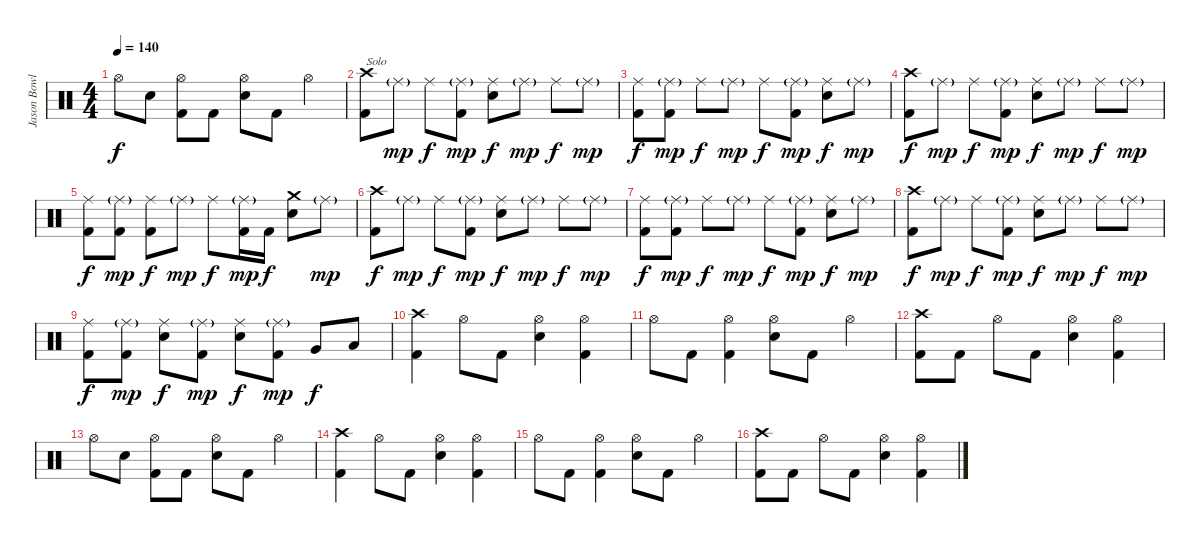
\track ("Jason Bowld" "Jason Bowl") {instrument percussion}
\staff {score}
\articulation defaults
\ts (4 4)
\tempo 140
\clef neutral
\ks c "Hi-Hat (open)".8{dy f} "Snare (hit) 2".8
("Hi-Hat (open)" "Kick (hit) 2").8 "Kick (hit) 2".8 ("Hi-Hat (open)" "Snare (hit) 2").8 "Kick (hit) 2".8 "Hi-Hat (open)".4 |
("Crash high (hit)" "Kick (hit) 2").8{txt "Solo"} "Ride (middle)"{g}.8{dy mp} "Ride (middle)".8{dy f} ("Ride (middle)"{g} "Kick (hit) 2").8{dy mp} ("Ride (middle)" "Snare (hit) 2").8{dy f} "Ride (middle)"{g}.8{dy mp} "Ride (middle)".8{dy f} "Ride (middle)"{g}.8{dy mp} |
("Ride (middle)" "Kick (hit) 2").8{dy f} ("Ride (middle)"{g} "Kick (hit) 2").8{dy mp} "Ride (middle)".8{dy f} "Ride (middle)"{g}.8{dy mp} "Ride (middle)".8{dy f} ("Ride (middle)"{g} "Kick (hit) 2").8{dy mp} ("Ride (middle)" "Snare (hit) 2").8{dy f} "Ride (middle)"{g}.8{dy mp} |
("Crash high (hit)" "Kick (hit) 2").8{dy f} "Ride (middle)"{g}.8{dy mp} "Ride (middle)".8{dy f} ("Ride (middle)"{g} "Kick (hit) 2").8{dy mp} ("Ride (middle)" "Snare (hit) 2").8{dy f} "Ride (middle)"{g}.8{dy mp} "Ride (middle)".8{dy f} "Ride (middle)"{g}.8{dy mp} |
("Ride (middle)" "Kick (hit) 2").8{dy f} ("Ride (middle)"{g} "Kick (hit) 2").8{dy mp} ("Ride (middle)" "Kick (hit) 2").8{dy f} "Ride (middle)"{g}.8{dy mp} "Ride (middle)".8{dy f} ("Ride (middle)"{g} "Kick (hit) 2").16{dy mp} "Kick (hit) 2".16{dy f} ("Crash medium (hit)" "Snare (hit) 2").8 "Ride (middle)"{g}.8{dy mp} |
("Crash high (hit)" "Kick (hit) 2").8{dy f} "Ride (middle)"{g}.8{dy mp} "Ride (middle)".8{dy f} ("Ride (middle)"{g} "Kick (hit) 2").8{dy mp} ("Ride (middle)" "Snare (hit) 2").8{dy f} "Ride (middle)"{g}.8{dy mp} "Ride (middle)".8{dy f} "Ride (middle)"{g}.8{dy mp} |
("Ride (middle)" "Kick (hit) 2").8{dy f} ("Ride (middle)"{g} "Kick (hit) 2").8{dy mp} "Ride (middle)".8{dy f} "Ride (middle)"{g}.8{dy mp} "Ride (middle)".8{dy f} ("Ride (middle)"{g} "Kick (hit) 2").8{dy mp} ("Ride (middle)" "Snare (hit) 2").8{dy f} "Ride (middle)"{g}.8{dy mp} |
("Crash high (hit)" "Kick (hit) 2").8{dy f} "Ride (middle)"{g}.8{dy mp} "Ride (middle)".8{dy f} ("Ride (middle)"{g} "Kick (hit) 2").8{dy mp} ("Ride (middle)" "Snare (hit) 2").8{dy f} "Ride (middle)"{g}.8{dy mp} "Ride (middle)".8{dy f} "Ride (middle)"{g}.8{dy mp} |
("Ride (middle)" "Kick (hit) 2").8{dy f} ("Ride (middle)"{g} "Kick (hit) 2").8{dy mp} ("Ride (middle)" "Snare (hit) 2").8{dy f} ("Ride (middle)"{g} "Kick (hit) 2").8{dy mp} ("Ride (middle)" "Snare (hit) 2").8{dy f} ("Ride (middle)"{g} "Kick (hit) 2").8{dy mp} "Very Low Tom (hit)".8{dy f} "Low Tom (hit)".8 |
("Crash high (hit)" "Kick (hit) 2").4 "Hi-Hat (open)".8 "Kick (hit) 2".8 ("Hi-Hat (open)" "Snare (hit) 2").4 ("Hi-Hat (open)" "Kick (hit) 2").4 |
"Hi-Hat (open)".8 "Kick (hit) 2".8 ("Hi-Hat (open)" "Kick (hit) 2").4 ("Hi-Hat (open)" "Snare (hit) 2").8 "Kick (hit) 2".8 "Hi-Hat (open)".4 |
("Crash high (hit)" "Kick (hit) 2").8 "Kick (hit) 2".8 "Hi-Hat (open)".8 "Kick (hit) 2".8 ("Hi-Hat (open)" "Snare (hit) 2").4 ("Hi-Hat (open)" "Kick (hit) 2").4 |
"Hi-Hat (open)".8 "Snare (hit) 2".8 ("Hi-Hat (open)" "Kick (hit) 2").8 "Kick (hit) 2".8 ("Hi-Hat (open)" "Snare (hit) 2").8 "Kick (hit) 2".8 "Hi-Hat (open)".4 |
("Crash high (hit)" "Kick (hit) 2").4 "Hi-Hat (open)".8 "Kick (hit) 2".8 ("Hi-Hat (open)" "Snare (hit) 2").4 ("Hi-Hat (open)" "Kick (hit) 2").4 |
"Hi-Hat (open)".8 "Kick (hit) 2".8 ("Hi-Hat (open)" "Kick (hit) 2").4 ("Hi-Hat (open)" "Snare (hit) 2").8 "Kick (hit) 2".8 "Hi-Hat (open)".4 |
("Crash high (hit)" "Kick (hit) 2").8 "Kick (hit) 2".8 "Hi-Hat (open)".8 "Kick (hit) 2".8 ("Hi-Hat (open)" "Snare (hit) 2").4 ("Hi-Hat (open)" "Kick (hit) 2").4
